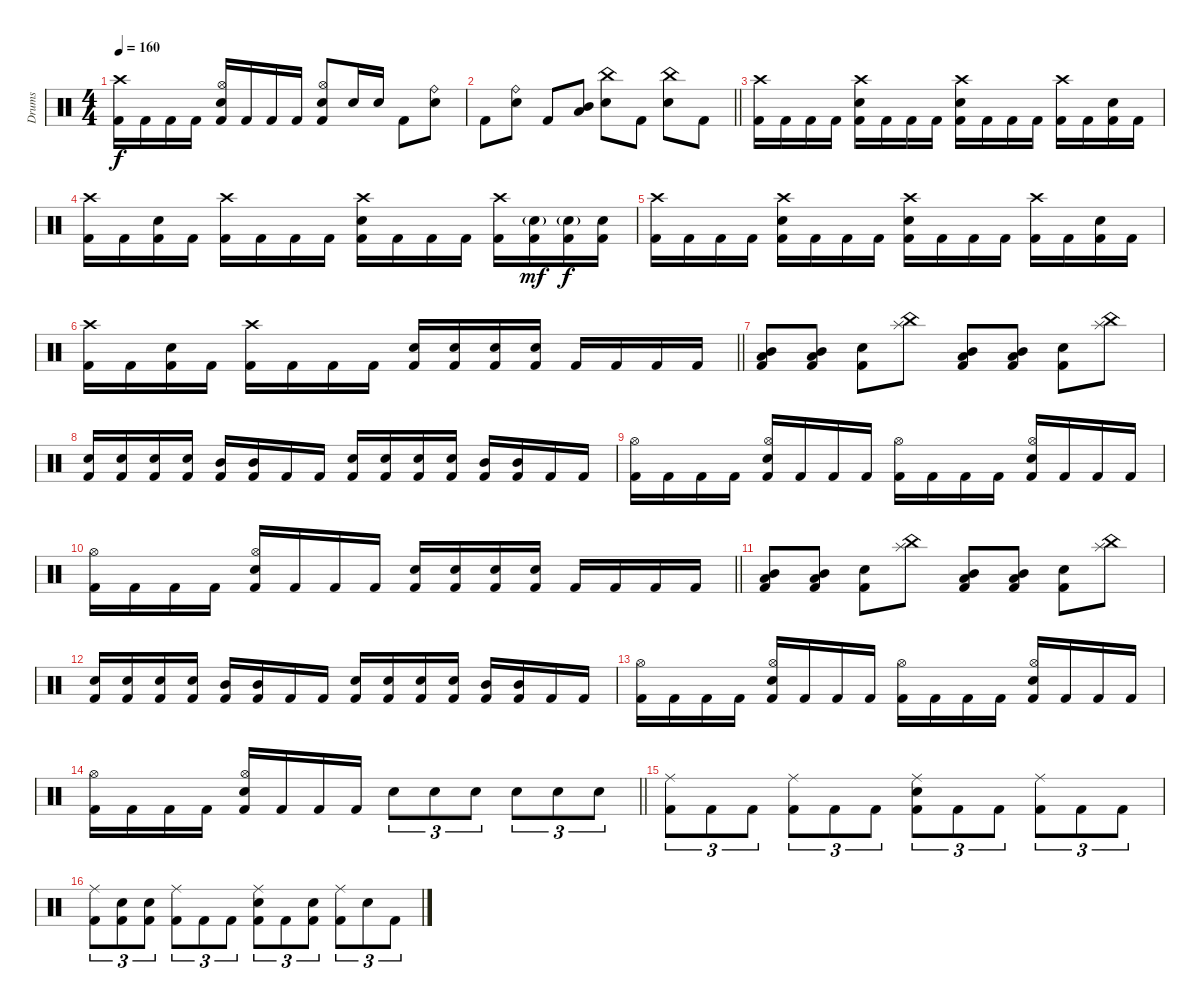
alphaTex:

\track ("Drums" "Drums") {instrument percussion}
\staff {score}
\articulation defaults
\ts (4 4)
\tempo 160
\clef neutral
\ks c
("Crash high (hit)" "Kick (hit) 2").16{dy f} "Kick (hit) 2".16 "Kick (hit) 2".16 "Kick (hit) 2".16 ("Hi-Hat (open)" "Electric Snare (hit)" "Kick (hit) 2").16 "Kick (hit) 2".16 "Kick (hit) 2".16 "Kick (hit) 2".16 ("Hi-Hat (open)" "Electric Snare (hit)" "Kick (hit) 2").8 "Electric Snare (hit)".16 "Electric Snare (hit)".16 "Kick (hit) 2".8 ("Ride (bell)" "Electric Snare (hit)").8 |
\barLineRight lightlight "Kick (hit) 2".8
("Ride (bell)" "Electric Snare (hit)").8 "Kick (hit) 2".8 ("Mid Tom (hit)" "Low Tom (hit)").8 ("China (hit)" "Electric Snare (hit)").8 "Kick (hit) 2".8 ("China (hit)" "Electric Snare (hit)").8 "Kick (hit) 2".8 |
("Crash high (hit)" "Kick (hit) 2").16 "Kick (hit) 2".16 "Kick (hit) 2".16 "Kick (hit) 2".16 ("Crash high (hit)" "Electric Snare (hit)" "Kick (hit) 2").16 "Kick (hit) 2".16 "Kick (hit) 2".16 "Kick (hit) 2".16 ("Crash high (hit)" "Electric Snare (hit)" "Kick (hit) 2").16 "Kick (hit) 2".16 "Kick (hit) 2".16 "Kick (hit) 2".16 ("Crash high (hit)" "Kick (hit) 2").16 "Kick (hit) 2".16 ("Electric Snare (hit)" "Kick (hit) 2").16 "Kick (hit) 2".16 |
("Crash high (hit)" "Kick (hit) 2").16 "Kick (hit) 2".16 ("Electric Snare (hit)" "Kick (hit) 2").16 "Kick (hit) 2".16 ("Crash high (hit)" "Kick (hit) 2").16 "Kick (hit) 2".16 "Kick (hit) 2".16 "Kick (hit) 2".16 ("Crash high (hit)" "Electric Snare (hit)" "Kick (hit) 2").16 "Kick (hit) 2".16 "Kick (hit) 2".16 "Kick (hit) 2".16 ("Crash high (hit)" "Kick (hit) 2").16 ("Electric Snare (hit)"{g} "Kick (hit) 2").16{dy mf} ("Electric Snare (hit)"{g} "Kick (hit) 2").16{dy f} ("Electric Snare (hit)" "Kick (hit) 2").16 |
("Crash high (hit)" "Kick (hit) 2").16 "Kick (hit) 2".16 "Kick (hit) 2".16 "Kick (hit) 2".16 ("Crash high (hit)" "Electric Snare (hit)" "Kick (hit) 2").16 "Kick (hit) 2".16 "Kick (hit) 2".16 "Kick (hit) 2".16 ("Crash high (hit)" "Electric Snare (hit)" "Kick (hit) 2").16 "Kick (hit) 2".16 "Kick (hit) 2".16 "Kick (hit) 2".16 ("Crash high (hit)" "Kick (hit) 2").16 "Kick (hit) 2".16 ("Electric Snare (hit)" "Kick (hit) 2").16 "Kick (hit) 2".16 |
\barLineRight lightlight
("Crash high (hit)" "Kick (hit) 2").16 "Kick (hit) 2".16 ("Electric Snare (hit)" "Kick (hit) 2").16 "Kick (hit) 2".16 ("Crash high (hit)" "Kick (hit) 2").16 "Kick (hit) 2".16 "Kick (hit) 2".16 "Kick (hit) 2".16 ("Electric Snare (hit)" "Kick (hit) 2").16 ("Electric Snare (hit)" "Kick (hit) 2").16 ("Electric Snare (hit)" "Kick (hit) 2").16 ("Electric Snare (hit)" "Kick (hit) 2").16 "Kick (hit) 2".16 "Kick (hit) 2".16 "Kick (hit) 2".16 "Kick (hit) 2".16 |
("Mid Tom (hit)" "Low Tom (hit)" "Kick (hit) 2").8 ("Mid Tom (hit)" "Low Tom (hit)" "Kick (hit) 2").8 ("Electric Snare (hit)" "Kick (hit) 2").8 ("China (hit)" "Splash (hit)").8 ("Mid Tom (hit)" "Low Tom (hit)" "Kick (hit) 2").8 ("Mid Tom (hit)" "Low Tom (hit)" "Kick (hit) 2").8 ("Electric Snare (hit)" "Kick (hit) 2").8 ("China (hit)" "Splash (hit)").8 |
("Electric Snare (hit)" "Kick (hit) 2").16 ("Electric Snare (hit)" "Kick (hit) 2").16 ("Electric Snare (hit)" "Kick (hit) 2").16 ("Electric Snare (hit)" "Kick (hit) 2").16 ("Mid Tom (hit)" "Kick (hit) 2").16 ("Mid Tom (hit)" "Kick (hit) 2").16 "Kick (hit) 2".16 "Kick (hit) 2".16 ("Electric Snare (hit)" "Kick (hit) 2").16 ("Electric Snare (hit)" "Kick (hit) 2").16 ("Electric Snare (hit)" "Kick (hit) 2").16 ("Electric Snare (hit)" "Kick (hit) 2").16 ("Mid Tom (hit)" "Kick (hit) 2").16 ("Mid Tom (hit)" "Kick (hit) 2").16 "Kick (hit) 2".16 "Kick (hit) 2".16 |
("Hi-Hat (open)" "Kick (hit) 2").16 "Kick (hit) 2".16 "Kick (hit) 2".16 "Kick (hit) 2".16 ("Hi-Hat (open)" "Electric Snare (hit)" "Kick (hit) 2").16 "Kick (hit) 2".16 "Kick (hit) 2".16 "Kick (hit) 2".16 ("Hi-Hat (open)" "Kick (hit) 2").16 "Kick (hit) 2".16 "Kick (hit) 2".16 "Kick (hit) 2".16 ("Hi-Hat (open)" "Electric Snare (hit)" "Kick (hit) 2").16 "Kick (hit) 2".16 "Kick (hit) 2".16 "Kick (hit) 2".16 |
\barLineRight lightlight
("Hi-Hat (open)" "Kick (hit) 2").16 "Kick (hit) 2".16 "Kick (hit) 2".16 "Kick (hit) 2".16 ("Hi-Hat (open)" "Electric Snare (hit)" "Kick (hit) 2").16 "Kick (hit) 2".16 "Kick (hit) 2".16 "Kick (hit) 2".16 ("Electric Snare (hit)" "Kick (hit) 2").16 ("Electric Snare (hit)" "Kick (hit) 2").16 ("Electric Snare (hit)" "Kick (hit) 2").16 ("Electric Snare (hit)" "Kick (hit) 2").16 "Kick (hit) 2".16 "Kick (hit) 2".16 "Kick (hit) 2".16 "Kick (hit) 2".16 |
("Mid Tom (hit)" "Low Tom (hit)" "Kick (hit) 2").8 ("Mid Tom (hit)" "Low Tom (hit)" "Kick (hit) 2").8 ("Electric Snare (hit)" "Kick (hit) 2").8 ("China (hit)" "Splash (hit)").8 ("Mid Tom (hit)" "Low Tom (hit)" "Kick (hit) 2").8 ("Mid Tom (hit)" "Low Tom (hit)" "Kick (hit) 2").8 ("Electric Snare (hit)" "Kick (hit) 2").8 ("China (hit)" "Splash (hit)").8 |
("Electric Snare (hit)" "Kick (hit) 2").16 ("Electric Snare (hit)" "Kick (hit) 2").16 ("Electric Snare (hit)" "Kick (hit) 2").16 ("Electric Snare (hit)" "Kick (hit) 2").16 ("Mid Tom (hit)" "Kick (hit) 2").16 ("Mid Tom (hit)" "Kick (hit) 2").16 "Kick (hit) 2".16 "Kick (hit) 2".16 ("Electric Snare (hit)" "Kick (hit) 2").16 ("Electric Snare (hit)" "Kick (hit) 2").16 ("Electric Snare (hit)" "Kick (hit) 2").16 ("Electric Snare (hit)" "Kick (hit) 2").16 ("Mid Tom (hit)" "Kick (hit) 2").16 ("Mid Tom (hit)" "Kick (hit) 2").16 "Kick (hit) 2".16 "Kick (hit) 2".16 |
("Hi-Hat (open)" "Kick (hit) 2").16 "Kick (hit) 2".16 "Kick (hit) 2".16 "Kick (hit) 2".16 ("Hi-Hat (open)" "Electric Snare (hit)" "Kick (hit) 2").16 "Kick (hit) 2".16 "Kick (hit) 2".16 "Kick (hit) 2".16 ("Hi-Hat (open)" "Kick (hit) 2").16 "Kick (hit) 2".16 "Kick (hit) 2".16 "Kick (hit) 2".16 ("Hi-Hat (open)" "Electric Snare (hit)" "Kick (hit) 2").16 "Kick (hit) 2".16 "Kick (hit) 2".16 "Kick (hit) 2".16 |
\barLineRight lightlight
("Hi-Hat (open)" "Kick (hit) 2").16 "Kick (hit) 2".16 "Kick (hit) 2".16 "Kick (hit) 2".16 ("Hi-Hat (open)" "Electric Snare (hit)" "Kick (hit) 2").16 "Kick (hit) 2".16 "Kick (hit) 2".16 "Kick (hit) 2".16 "Electric Snare (hit)".8{tu (3 2)} "Electric Snare (hit)".8{tu (3 2)} "Electric Snare (hit)".8{tu (3 2)} "Electric Snare (hit)".8{tu (3 2)} "Electric Snare (hit)".8{tu (3 2)} "Electric Snare (hit)".8{tu (3 2)} |
("Ride (middle)" "Kick (hit) 2").8{tu (3 2)} "Kick (hit) 2".8{tu (3 2)} "Kick (hit) 2".8{tu (3 2)} ("Ride (middle)" "Kick (hit) 2").8{tu (3 2)} "Kick (hit) 2".8{tu (3 2)} "Kick (hit) 2".8{tu (3 2)} ("Ride (middle)" "Electric Snare (hit)" "Kick (hit) 2").8{tu (3 2)} "Kick (hit) 2".8{tu (3 2)} "Kick (hit) 2".8{tu (3 2)} ("Ride (middle)" "Kick (hit) 2").8{tu (3 2)} "Kick (hit) 2".8{tu (3 2)} "Kick (hit) 2".8{tu (3 2)} |
("Ride (middle)" "Kick (hit) 2").8{tu (3 2)} ("Electric Snare (hit)" "Kick (hit) 2").8{tu (3 2)} ("Electric Snare (hit)" "Kick (hit) 2").8{tu (3 2)} ("Ride (middle)" "Kick (hit) 2").8{tu (3 2)} "Kick (hit) 2".8{tu (3 2)} "Kick (hit) 2".8{tu (3 2)} ("Ride (middle)" "Electric Snare (hit)" "Kick (hit) 2").8{tu (3 2)} "Kick (hit) 2".8{tu (3 2)} ("Electric Snare (hit)" "Kick (hit) 2").8{tu (3 2)} ("Ride (middle)" "Kick (hit) 2").8{tu (3 2)} "Electric Snare (hit)".8{tu (3 2)} "Kick (hit) 2".8{tu (3 2)}
